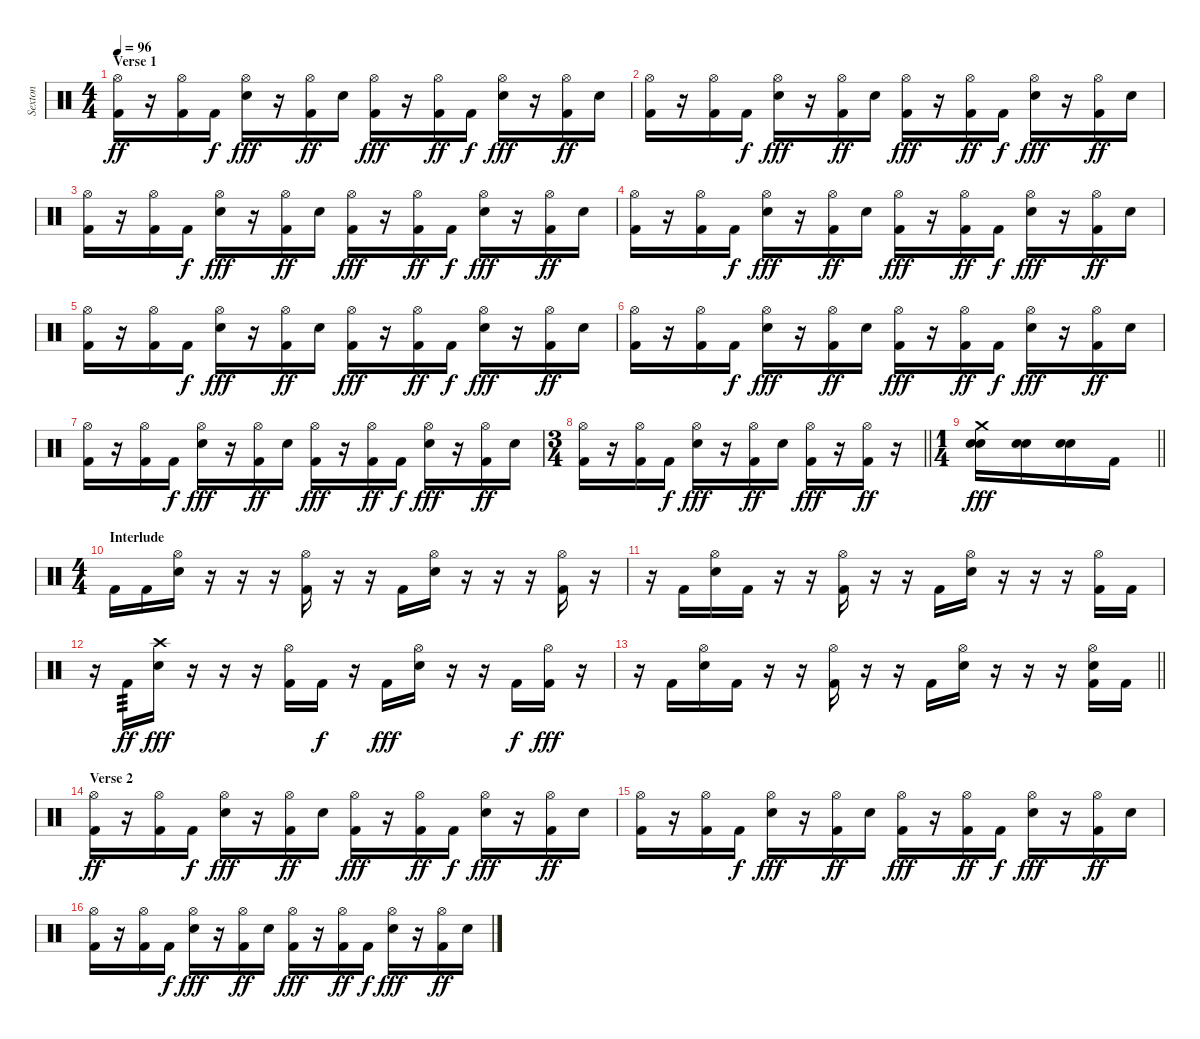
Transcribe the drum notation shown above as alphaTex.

\track ("Sexton" "Sexton") {instrument percussion}
\staff {score}
\articulation defaults
\ts (4 4)
\section ("" "Verse 1")
\tempo 96
\clef neutral
\ks c
("Hi-Hat (open)" "Kick (hit) 2").16{dy ff} r.16 ("Hi-Hat (open)" "Kick (hit) 2").16 "Kick (hit) 2".16{dy f} ("Hi-Hat (open)" "Electric Snare (hit)").16{dy fff} r.16 ("Hi-Hat (open)" "Kick (hit) 2").16{dy ff} "Electric Snare (hit)".16 ("Hi-Hat (open)" "Kick (hit) 2").16{dy fff} r.16 ("Hi-Hat (open)" "Kick (hit) 2").16{dy ff} "Kick (hit) 2".16{dy f} ("Hi-Hat (open)" "Electric Snare (hit)").16{dy fff} r.16 ("Hi-Hat (open)" "Kick (hit) 2").16{dy ff} "Electric Snare (hit)".16 |
("Hi-Hat (open)" "Kick (hit) 2").16 r.16 ("Hi-Hat (open)" "Kick (hit) 2").16 "Kick (hit) 2".16{dy f} ("Hi-Hat (open)" "Electric Snare (hit)").16{dy fff} r.16 ("Hi-Hat (open)" "Kick (hit) 2").16{dy ff} "Electric Snare (hit)".16 ("Hi-Hat (open)" "Kick (hit) 2").16{dy fff} r.16 ("Hi-Hat (open)" "Kick (hit) 2").16{dy ff} "Kick (hit) 2".16{dy f} ("Hi-Hat (open)" "Electric Snare (hit)").16{dy fff} r.16 ("Hi-Hat (open)" "Kick (hit) 2").16{dy ff} "Electric Snare (hit)".16 |
("Hi-Hat (open)" "Kick (hit) 2").16 r.16 ("Hi-Hat (open)" "Kick (hit) 2").16 "Kick (hit) 2".16{dy f} ("Hi-Hat (open)" "Electric Snare (hit)").16{dy fff} r.16 ("Hi-Hat (open)" "Kick (hit) 2").16{dy ff} "Electric Snare (hit)".16 ("Hi-Hat (open)" "Kick (hit) 2").16{dy fff} r.16 ("Hi-Hat (open)" "Kick (hit) 2").16{dy ff} "Kick (hit) 2".16{dy f} ("Hi-Hat (open)" "Electric Snare (hit)").16{dy fff} r.16 ("Hi-Hat (open)" "Kick (hit) 2").16{dy ff} "Electric Snare (hit)".16 |
("Hi-Hat (open)" "Kick (hit) 2").16 r.16 ("Hi-Hat (open)" "Kick (hit) 2").16 "Kick (hit) 2".16{dy f} ("Hi-Hat (open)" "Electric Snare (hit)").16{dy fff} r.16 ("Hi-Hat (open)" "Kick (hit) 2").16{dy ff} "Electric Snare (hit)".16 ("Hi-Hat (open)" "Kick (hit) 2").16{dy fff} r.16 ("Hi-Hat (open)" "Kick (hit) 2").16{dy ff} "Kick (hit) 2".16{dy f} ("Hi-Hat (open)" "Electric Snare (hit)").16{dy fff} r.16 ("Hi-Hat (open)" "Kick (hit) 2").16{dy ff} "Electric Snare (hit)".16 |
("Hi-Hat (open)" "Kick (hit) 2").16 r.16 ("Hi-Hat (open)" "Kick (hit) 2").16 "Kick (hit) 2".16{dy f} ("Hi-Hat (open)" "Electric Snare (hit)").16{dy fff} r.16 ("Hi-Hat (open)" "Kick (hit) 2").16{dy ff} "Electric Snare (hit)".16 ("Hi-Hat (open)" "Kick (hit) 2").16{dy fff} r.16 ("Hi-Hat (open)" "Kick (hit) 2").16{dy ff} "Kick (hit) 2".16{dy f} ("Hi-Hat (open)" "Electric Snare (hit)").16{dy fff} r.16 ("Hi-Hat (open)" "Kick (hit) 2").16{dy ff} "Electric Snare (hit)".16 |
("Hi-Hat (open)" "Kick (hit) 2").16 r.16 ("Hi-Hat (open)" "Kick (hit) 2").16 "Kick (hit) 2".16{dy f} ("Hi-Hat (open)" "Electric Snare (hit)").16{dy fff} r.16 ("Hi-Hat (open)" "Kick (hit) 2").16{dy ff} "Electric Snare (hit)".16 ("Hi-Hat (open)" "Kick (hit) 2").16{dy fff} r.16 ("Hi-Hat (open)" "Kick (hit) 2").16{dy ff} "Kick (hit) 2".16{dy f} ("Hi-Hat (open)" "Electric Snare (hit)").16{dy fff} r.16 ("Hi-Hat (open)" "Kick (hit) 2").16{dy ff} "Electric Snare (hit)".16 |
("Hi-Hat (open)" "Kick (hit) 2").16 r.16 ("Hi-Hat (open)" "Kick (hit) 2").16 "Kick (hit) 2".16{dy f} ("Hi-Hat (open)" "Electric Snare (hit)").16{dy fff} r.16 ("Hi-Hat (open)" "Kick (hit) 2").16{dy ff} "Electric Snare (hit)".16 ("Hi-Hat (open)" "Kick (hit) 2").16{dy fff} r.16 ("Hi-Hat (open)" "Kick (hit) 2").16{dy ff} "Kick (hit) 2".16{dy f} ("Hi-Hat (open)" "Electric Snare (hit)").16{dy fff} r.16 ("Hi-Hat (open)" "Kick (hit) 2").16{dy ff} "Electric Snare (hit)".16 |
\ts (3 4)
\barLineRight lightlight
("Hi-Hat (open)" "Kick (hit) 2").16 r.16 ("Hi-Hat (open)" "Kick (hit) 2").16 "Kick (hit) 2".16{dy f} ("Hi-Hat (open)" "Electric Snare (hit)").16{dy fff} r.16 ("Hi-Hat (open)" "Kick (hit) 2").16{dy ff} "Electric Snare (hit)".16 ("Hi-Hat (open)" "Kick (hit) 2").16{dy fff} r.16 ("Hi-Hat (open)" "Kick (hit) 2").16{dy ff} r.16 |
\ts (1 4)
\barLineRight lightlight
("Crash medium (hit)" "Electric Snare (hit)" "Electric Snare (hit)").16{dy fff} ("Electric Snare (hit)" "Electric Snare (hit)").16 ("Electric Snare (hit)" "Electric Snare (hit)").16 "Kick (hit) 2".16 |
\ts (4 4)
\section ("" "Interlude")
"Kick (hit) 2".16 "Kick (hit) 2".16 ("Hi-Hat (open)" "Electric Snare (hit)").16 r.16 r.16 r.16 ("Hi-Hat (open)" "Kick (hit) 2").16 r.16 r.16 "Kick (hit) 2".16 ("Hi-Hat (open)" "Electric Snare (hit)").16 r.16 r.16 r.16 ("Hi-Hat (open)" "Kick (hit) 2").16 r.16 |
r.16 "Kick (hit) 2".16 ("Hi-Hat (open)" "Electric Snare (hit)").16 "Kick (hit) 2".16 r.16 r.16 ("Hi-Hat (open)" "Kick (hit) 2").16 r.16 r.16 "Kick (hit) 2".16 ("Hi-Hat (open)" "Electric Snare (hit)").16 r.16 r.16 r.16 ("Hi-Hat (open)" "Kick (hit) 2").16 "Kick (hit) 2".16 |
r.16 "Kick (hit) 2".16{tp 3 dy ff} ("Crash high (hit)" "Electric Snare (hit)").16{dy fff} r.16 r.16 r.16 ("Hi-Hat (open)" "Kick (hit) 2").16 "Kick (hit) 2".16{dy f} r.16 "Kick (hit) 2".16{dy fff} ("Hi-Hat (open)" "Electric Snare (hit)").16 r.16 r.16 "Kick (hit) 2".16{dy f} ("Hi-Hat (open)" "Kick (hit) 2").16{dy fff} r.16 |
\barLineRight lightlight
r.16 "Kick (hit) 2".16 ("Hi-Hat (open)" "Electric Snare (hit)").16 "Kick (hit) 2".16 r.16 r.16 ("Hi-Hat (open)" "Kick (hit) 2").16 r.16 r.16 "Kick (hit) 2".16 ("Hi-Hat (open)" "Electric Snare (hit)").16 r.16 r.16 r.16 ("Hi-Hat (open)" "Electric Snare (hit)" "Kick (hit) 2").16 "Kick (hit) 2".16 |
\section ("" "Verse 2")
("Hi-Hat (open)" "Kick (hit) 2").16{dy ff} r.16 ("Hi-Hat (open)" "Kick (hit) 2").16 "Kick (hit) 2".16{dy f} ("Hi-Hat (open)" "Electric Snare (hit)").16{dy fff} r.16 ("Hi-Hat (open)" "Kick (hit) 2").16{dy ff} "Electric Snare (hit)".16 ("Hi-Hat (open)" "Kick (hit) 2").16{dy fff} r.16 ("Hi-Hat (open)" "Kick (hit) 2").16{dy ff} "Kick (hit) 2".16{dy f} ("Hi-Hat (open)" "Electric Snare (hit)").16{dy fff} r.16 ("Hi-Hat (open)" "Kick (hit) 2").16{dy ff} "Electric Snare (hit)".16 |
("Hi-Hat (open)" "Kick (hit) 2").16 r.16 ("Hi-Hat (open)" "Kick (hit) 2").16 "Kick (hit) 2".16{dy f} ("Hi-Hat (open)" "Electric Snare (hit)").16{dy fff} r.16 ("Hi-Hat (open)" "Kick (hit) 2").16{dy ff} "Electric Snare (hit)".16 ("Hi-Hat (open)" "Kick (hit) 2").16{dy fff} r.16 ("Hi-Hat (open)" "Kick (hit) 2").16{dy ff} "Kick (hit) 2".16{dy f} ("Hi-Hat (open)" "Electric Snare (hit)").16{dy fff} r.16 ("Hi-Hat (open)" "Kick (hit) 2").16{dy ff} "Electric Snare (hit)".16 |
("Hi-Hat (open)" "Kick (hit) 2").16 r.16 ("Hi-Hat (open)" "Kick (hit) 2").16 "Kick (hit) 2".16{dy f} ("Hi-Hat (open)" "Electric Snare (hit)").16{dy fff} r.16 ("Hi-Hat (open)" "Kick (hit) 2").16{dy ff} "Electric Snare (hit)".16 ("Hi-Hat (open)" "Kick (hit) 2").16{dy fff} r.16 ("Hi-Hat (open)" "Kick (hit) 2").16{dy ff} "Kick (hit) 2".16{dy f} ("Hi-Hat (open)" "Electric Snare (hit)").16{dy fff} r.16 ("Hi-Hat (open)" "Kick (hit) 2").16{dy ff} "Electric Snare (hit)".16
